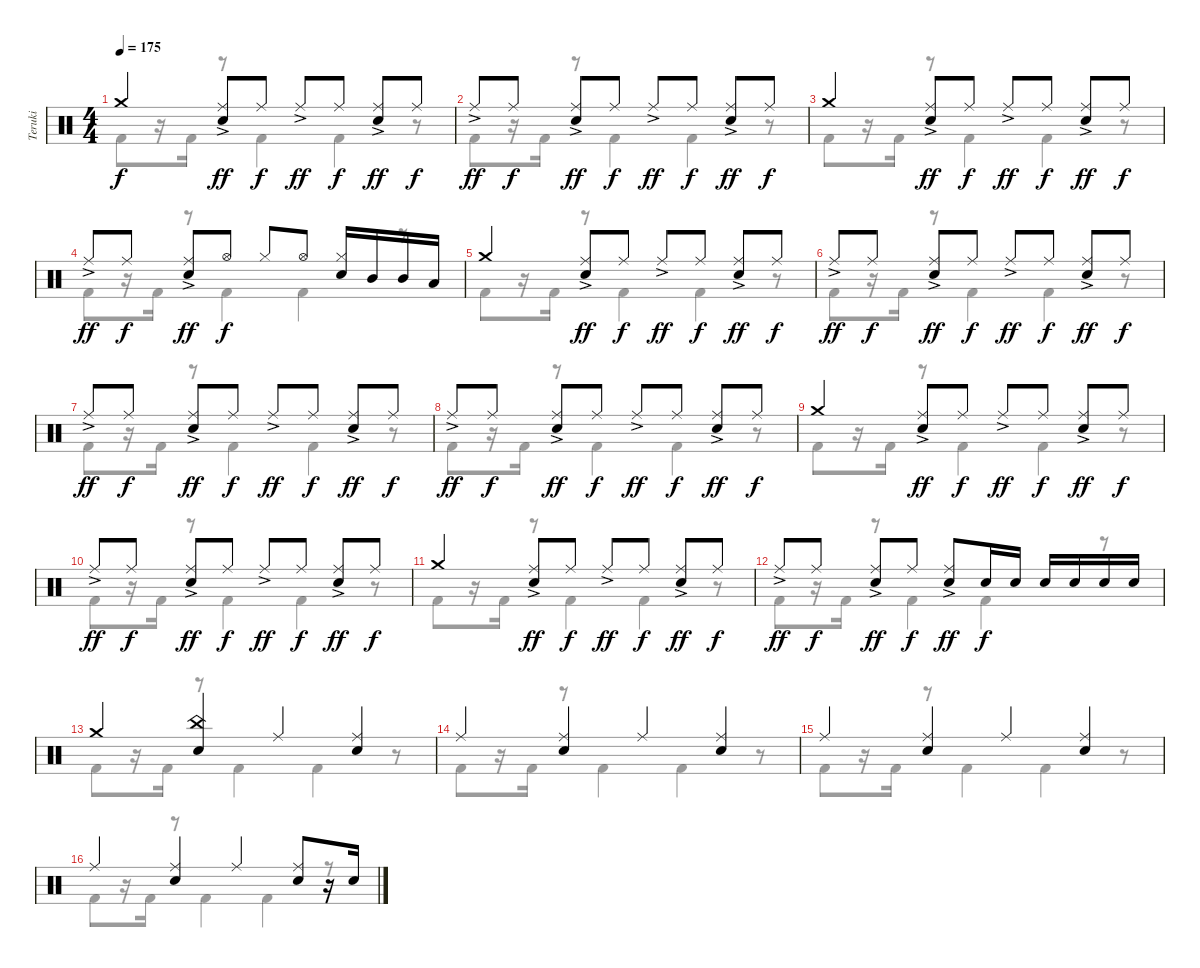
\track ("Teruki" "Teruki") {instrument percussion}
\staff {score}
\articulation defaults
\voice
\ts (4 4)
\tempo 175
\clef neutral
\ks c "Crash medium (hit)".4{dy f}
("Ride (middle)"{ac} "Snare (hit) 2").8{dy ff} "Ride (middle)".8{dy f} "Ride (middle)"{ac}.8{dy ff} "Ride (middle)".8{dy f} ("Ride (middle)"{ac} "Snare (hit) 2").8{dy ff} "Ride (middle)".8{dy f} |
"Ride (middle)"{ac}.8{dy ff} "Ride (middle)".8{dy f} ("Ride (middle)"{ac} "Snare (hit) 2").8{dy ff} "Ride (middle)".8{dy f} "Ride (middle)"{ac}.8{dy ff} "Ride (middle)".8{dy f} ("Ride (middle)"{ac} "Snare (hit) 2").8{dy ff} "Ride (middle)".8{dy f} |
"Crash medium (hit)".4 ("Ride (middle)"{ac} "Snare (hit) 2").8{dy ff} "Ride (middle)".8{dy f} "Ride (middle)"{ac}.8{dy ff} "Ride (middle)".8{dy f} ("Ride (middle)"{ac} "Snare (hit) 2").8{dy ff} "Ride (middle)".8{dy f} |
"Ride (middle)"{ac}.8{dy ff} "Ride (middle)".8{dy f} ("Ride (middle)"{ac} "Snare (hit) 2").8{dy ff} "Hi-Hat (open)".8{dy f} "Hi-Hat (closed)".8 "Hi-Hat (open)".8 ("Hi-Hat (closed)" "Snare (hit) 2").16 "Mid Tom (hit)".16 "Mid Tom (hit)".16 "Low Tom (hit)".16 |
"Crash medium (hit)".4 ("Ride (middle)"{ac} "Snare (hit) 2").8{dy ff} "Ride (middle)".8{dy f} "Ride (middle)"{ac}.8{dy ff} "Ride (middle)".8{dy f} ("Ride (middle)"{ac} "Snare (hit) 2").8{dy ff} "Ride (middle)".8{dy f} |
"Ride (middle)"{ac}.8{dy ff} "Ride (middle)".8{dy f} ("Ride (middle)"{ac} "Snare (hit) 2").8{dy ff} "Ride (middle)".8{dy f} "Ride (middle)"{ac}.8{dy ff} "Ride (middle)".8{dy f} ("Ride (middle)"{ac} "Snare (hit) 2").8{dy ff} "Ride (middle)".8{dy f} |
"Ride (middle)"{ac}.8{dy ff} "Ride (middle)".8{dy f} ("Ride (middle)"{ac} "Snare (hit) 2").8{dy ff} "Ride (middle)".8{dy f} "Ride (middle)"{ac}.8{dy ff} "Ride (middle)".8{dy f} ("Ride (middle)"{ac} "Snare (hit) 2").8{dy ff} "Ride (middle)".8{dy f} |
"Ride (middle)"{ac}.8{dy ff} "Ride (middle)".8{dy f} ("Ride (middle)"{ac} "Snare (hit) 2").8{dy ff} "Ride (middle)".8{dy f} "Ride (middle)"{ac}.8{dy ff} "Ride (middle)".8{dy f} ("Ride (middle)"{ac} "Snare (hit) 2").8{dy ff} "Ride (middle)".8{dy f} |
"Crash medium (hit)".4 ("Ride (middle)"{ac} "Snare (hit) 2").8{dy ff} "Ride (middle)".8{dy f} "Ride (middle)"{ac}.8{dy ff} "Ride (middle)".8{dy f} ("Ride (middle)"{ac} "Snare (hit) 2").8{dy ff} "Ride (middle)".8{dy f} |
"Ride (middle)"{ac}.8{dy ff} "Ride (middle)".8{dy f} ("Ride (middle)"{ac} "Snare (hit) 2").8{dy ff} "Ride (middle)".8{dy f} "Ride (middle)"{ac}.8{dy ff} "Ride (middle)".8{dy f} ("Ride (middle)"{ac} "Snare (hit) 2").8{dy ff} "Ride (middle)".8{dy f} |
"Crash medium (hit)".4 ("Ride (middle)"{ac} "Snare (hit) 2").8{dy ff} "Ride (middle)".8{dy f} "Ride (middle)"{ac}.8{dy ff} "Ride (middle)".8{dy f} ("Ride (middle)"{ac} "Snare (hit) 2").8{dy ff} "Ride (middle)".8{dy f} |
"Ride (middle)"{ac}.8{dy ff} "Ride (middle)".8{dy f} ("Ride (middle)"{ac} "Snare (hit) 2").8{dy ff} "Ride (middle)".8{dy f} ("Ride (middle)"{ac} "Snare (hit) 2").8{dy ff} "Snare (hit) 2".16{dy f} "Snare (hit) 2".16 "Snare (hit) 2".16 "Snare (hit) 2".16 "Snare (hit) 2".16 "Snare (hit) 2".16 |
"Crash medium (hit)".4 ("China (hit)" "Snare (hit) 2").4 "Ride (middle)".4 ("Ride (middle)" "Snare (hit) 2").4 |
"Ride (middle)".4 ("Ride (middle)" "Snare (hit) 2").4 "Ride (middle)".4 ("Ride (middle)" "Snare (hit) 2").4 |
"Ride (middle)".4 ("Ride (middle)" "Snare (hit) 2").4 "Ride (middle)".4 ("Ride (middle)" "Snare (hit) 2").4 |
"Ride (middle)".4 ("Ride (middle)" "Snare (hit) 2").4 "Ride (middle)".4 ("Ride (middle)" "Snare (hit) 2").8 r.16 "Snare (hit) 2".16
\voice
\clef neutral
\ottava regular
\simile none
\ks c "Kick (hit) 2".8{dy f}
r.16 "Kick (hit) 2".16 r.8 "Kick (hit) 2".4 "Kick (hit) 2".4 r.8 |
"Kick (hit) 2".8 r.16 "Kick (hit) 2".16 r.8 "Kick (hit) 2".4 "Kick (hit) 2".4 r.8 |
"Kick (hit) 2".8 r.16 "Kick (hit) 2".16 r.8 "Kick (hit) 2".4 "Kick (hit) 2".4 r.8 |
"Kick (hit) 2".8 r.16 "Kick (hit) 2".16 r.8 "Kick (hit) 2".4 "Kick (hit) 2".4 r.8 |
"Kick (hit) 2".8 r.16 "Kick (hit) 2".16 r.8 "Kick (hit) 2".4 "Kick (hit) 2".4 r.8 |
"Kick (hit) 2".8 r.16 "Kick (hit) 2".16 r.8 "Kick (hit) 2".4 "Kick (hit) 2".4 r.8 |
"Kick (hit) 2".8 r.16 "Kick (hit) 2".16 r.8 "Kick (hit) 2".4 "Kick (hit) 2".4 r.8 |
"Kick (hit) 2".8 r.16 "Kick (hit) 2".16 r.8 "Kick (hit) 2".4 "Kick (hit) 2".4 r.8 |
"Kick (hit) 2".8 r.16 "Kick (hit) 2".16 r.8 "Kick (hit) 2".4 "Kick (hit) 2".4 r.8 |
"Kick (hit) 2".8 r.16 "Kick (hit) 2".16 r.8 "Kick (hit) 2".4 "Kick (hit) 2".4 r.8 |
"Kick (hit) 2".8 r.16 "Kick (hit) 2".16 r.8 "Kick (hit) 2".4 "Kick (hit) 2".4 r.8 |
"Kick (hit) 2".8 r.16 "Kick (hit) 2".16 r.8 "Kick (hit) 2".4 "Kick (hit) 2".4 r.8 |
"Kick (hit) 2".8 r.16 "Kick (hit) 2".16 r.8 "Kick (hit) 2".4 "Kick (hit) 2".4 r.8 |
"Kick (hit) 2".8 r.16 "Kick (hit) 2".16 r.8 "Kick (hit) 2".4 "Kick (hit) 2".4 r.8 |
"Kick (hit) 2".8 r.16 "Kick (hit) 2".16 r.8 "Kick (hit) 2".4 "Kick (hit) 2".4 r.8 |
"Kick (hit) 2".8 r.16 "Kick (hit) 2".16 r.8 "Kick (hit) 2".4 "Kick (hit) 2".4 r.8
